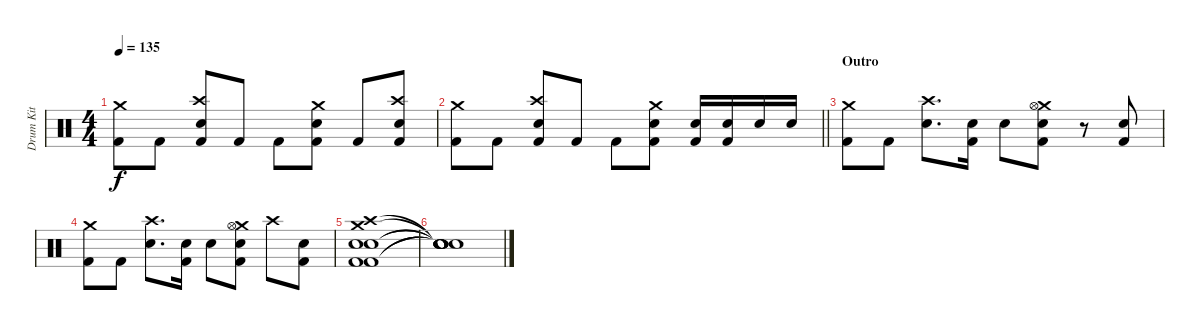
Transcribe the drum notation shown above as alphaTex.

\track ("Drum Kit" "Drum Kit") {instrument percussion}
\staff {score}
\articulation defaults
\ts (4 4)
\tempo 135
\clef neutral
\ks c
("Crash medium (hit)" "Kick (hit) 2").8{dy f} "Kick (hit) 2".8 ("Crash high (hit)" "Electric Snare (hit)" "Kick (hit) 2").8 "Kick (hit) 2".8 "Kick (hit) 2".8 ("Crash medium (hit)" "Electric Snare (hit)" "Kick (hit) 2").8 "Kick (hit) 2".8 ("Crash high (hit)" "Electric Snare (hit)" "Kick (hit) 2").8 |
\barLineRight lightlight
("Crash medium (hit)" "Kick (hit) 2").8 "Kick (hit) 2".8 ("Crash high (hit)" "Electric Snare (hit)" "Kick (hit) 2").8 "Kick (hit) 2".8 "Kick (hit) 2".8 ("Crash medium (hit)" "Electric Snare (hit)" "Kick (hit) 2").8 ("Electric Snare (hit)" "Kick (hit) 2").16 ("Electric Snare (hit)" "Kick (hit) 2").16 "Electric Snare (hit)".16 "Electric Snare (hit)".16 |
\section ("" "Outro")
("Crash medium (hit)" "Kick (hit) 2").8 "Kick (hit) 2".8 ("Crash high (hit)" "Electric Snare (hit)").8{d} ("Electric Snare (hit)" "Kick (hit) 2").16 "Electric Snare (hit)".8 ("Crash medium (hit)" "Hi-Hat (open)" "Electric Snare (hit)" "Kick (hit) 2").8 r.8 ("Electric Snare (hit)" "Kick (hit) 2").8 |
("Crash medium (hit)" "Kick (hit) 2").8 "Kick (hit) 2".8 ("Crash high (hit)" "Electric Snare (hit)").8{d} ("Electric Snare (hit)" "Kick (hit) 2").16 "Electric Snare (hit)".8 ("Crash medium (hit)" "Hi-Hat (open)" "Electric Snare (hit)" "Kick (hit) 2").8 "Crash high (hit)".8 ("Electric Snare (hit)" "Kick (hit) 2").8 |
("Crash medium (hit)" "Crash high (hit)" "Electric Snare (hit)" "Electric Snare (hit)" "Kick (hit) 2" "Kick (hit) 2").1 |
("Snare (hit)"{t} "Snare (hit)"{t} "Snare (hit)"{t} "Snare (hit)"{t} "Snare (hit)"{t} "Snare (hit)"{t}).1
